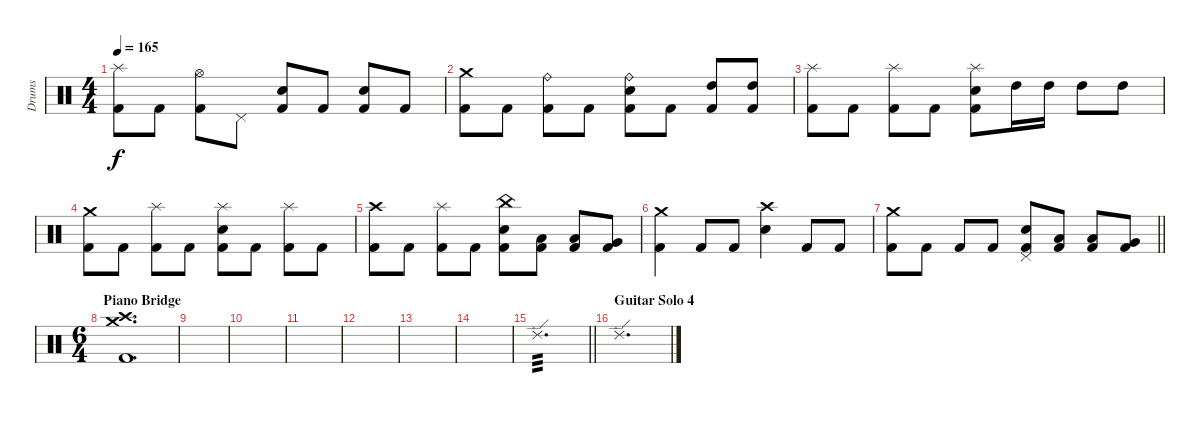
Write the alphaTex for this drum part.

\track ("Drums" "Drums") {instrument percussion}
\staff {score}
\articulation defaults
\ts (4 4)
\tempo 165
\clef neutral
\ks c
("Splash (hit)" "Kick (hit) 2").8{dy f} "Kick (hit) 2".8 ("Hi-Hat (open)" "Kick (hit) 2").8 "Pedal Hi-Hat (hit)".8 ("Snare (hit) 2" "Kick (hit) 2").8 "Kick (hit) 2".8 ("Snare (hit) 2" "Kick (hit) 2").8 "Kick (hit) 2".8 |
("Crash medium (hit)" "Kick (hit) 2").8 "Kick (hit) 2".8 ("Ride (bell)" "Kick (hit) 2").8 "Kick (hit) 2".8 ("Ride (bell)" "Snare (hit) 2" "Kick (hit) 2").8 "Kick (hit) 2".8 ("High Tom (hit)" "Kick (hit) 2").8 ("High Tom (hit)" "Kick (hit) 2").8 |
("Splash (hit)" "Kick (hit) 2").8 "Kick (hit) 2".8 ("Splash (hit)" "Kick (hit) 2").8 "Kick (hit) 2".8 ("Splash (hit)" "Snare (hit) 2" "Kick (hit) 2").8 "High Tom (hit)".16 "High Tom (hit)".16 "High Tom (hit)".8 "High Tom (hit)".8 |
("Crash medium (hit)" "Kick (hit) 2").8 "Kick (hit) 2".8 ("Splash (hit)" "Kick (hit) 2").8 "Kick (hit) 2".8 ("Splash (hit)" "Snare (hit) 2" "Kick (hit) 2").8 "Kick (hit) 2".8 ("Splash (hit)" "Kick (hit) 2").8 "Kick (hit) 2".8 |
("Crash high (hit)" "Kick (hit) 2").8 "Kick (hit) 2".8 ("Splash (hit)" "Kick (hit) 2").8 "Kick (hit) 2".8 ("China (hit)" "Snare (hit) 2" "Kick (hit) 2").8 ("Low Tom (hit)" "Kick (hit) 2").8 ("Low Tom (hit)" "Kick (hit) 2").8 ("Very Low Tom (hit)" "Kick (hit) 2").8 |
("Crash medium (hit)" "Kick (hit) 2").4 "Kick (hit) 2".8 "Kick (hit) 2".8 ("Crash high (hit)" "Snare (hit) 2").4 "Kick (hit) 2".8 "Kick (hit) 2".8 |
\barLineRight lightlight
("Crash medium (hit)" "Kick (hit) 2").8 "Kick (hit) 2".8 "Kick (hit) 2".8 "Kick (hit) 2".8 ("Pedal Hi-Hat (hit)" "Snare (hit) 2" "Kick (hit) 2").8 ("Low Floor Tom (hit)" "Kick (hit) 2").8 ("Low Tom (hit)" "Kick (hit) 2").8 ("Very Low Tom (hit)" "Kick (hit) 2").8 |
\ts (6 4)
\section ("" "Piano Bridge")
("Crash medium (hit)" "Crash high (hit)" "Kick (hit) 2").1{d} |
|
|
|
|
|
|
\barLineRight lightlight "Ride (edge) 2".1{d tp 3 volume 13}
|
\section ("" "Guitar Solo 4")
"Ride (edge) 2".1{d}
